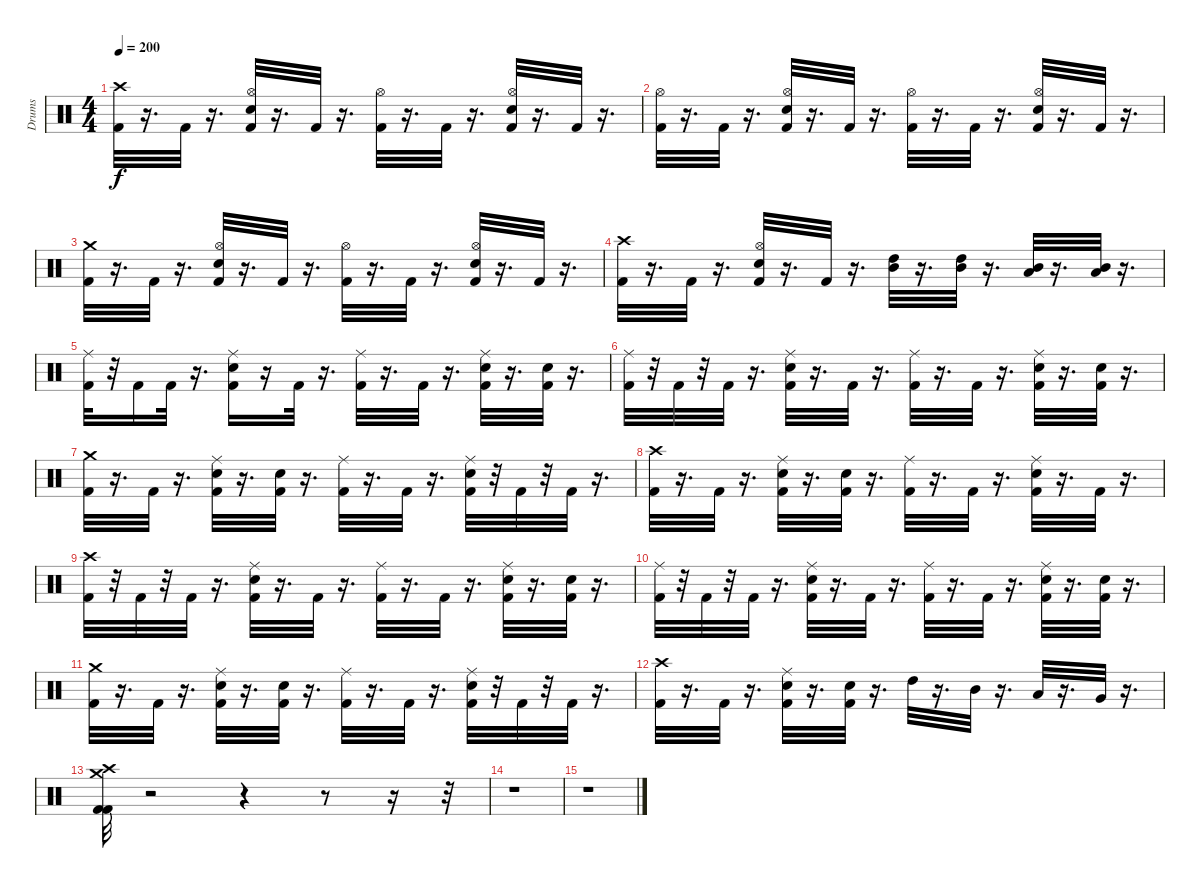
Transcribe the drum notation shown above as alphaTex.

\track ("Drums" "Drums") {instrument percussion}
\staff {score}
\articulation defaults
\ts (4 4)
\tempo 200
\clef neutral
\ks c
("Crash high (hit)" "Kick (hit) 2").32{dy f} r.16{d} "Kick (hit) 2".32 r.16{d} ("Hi-Hat (open)" "Electric Snare (hit)" "Kick (hit) 2").32 r.16{d} "Kick (hit) 2".32 r.16{d} ("Hi-Hat (open)" "Kick (hit) 2").32 r.16{d} "Kick (hit) 2".32 r.16{d} ("Hi-Hat (open)" "Electric Snare (hit)" "Kick (hit) 2").32 r.16{d} "Kick (hit) 2".32 r.16{d} |
("Hi-Hat (open)" "Kick (hit) 2").32 r.16{d} "Kick (hit) 2".32 r.16{d} ("Hi-Hat (open)" "Electric Snare (hit)" "Kick (hit) 2").32 r.16{d} "Kick (hit) 2".32 r.16{d} ("Hi-Hat (open)" "Kick (hit) 2").32 r.16{d} "Kick (hit) 2".32 r.16{d} ("Hi-Hat (open)" "Electric Snare (hit)" "Kick (hit) 2").32 r.16{d} "Kick (hit) 2".32 r.16{d} |
("Kick (hit) 2" "Crash medium (hit)").32 r.16{d} "Kick (hit) 2".32 r.16{d} ("Kick (hit) 2" "Electric Snare (hit)" "Hi-Hat (open)").32 r.16{d} "Kick (hit) 2".32 r.16{d} ("Kick (hit) 2" "Hi-Hat (open)").32 r.16{d} "Kick (hit) 2".32 r.16{d} ("Kick (hit) 2" "Hi-Hat (open)" "Electric Snare (hit)").32 r.16{d} "Kick (hit) 2".32 r.16{d} |
("Kick (hit) 2" "Crash high (hit)").32 r.16{d} "Kick (hit) 2".32 r.16{d} ("Kick (hit) 2" "Electric Snare (hit)" "Hi-Hat (open)").32 r.16{d} "Kick (hit) 2".32 r.16{d} ("Mid Tom (hit)" "High Tom (hit)").32 r.16{d} ("Mid Tom (hit)" "High Tom (hit)").32 r.16{d} ("Low Tom (hit)" "Mid Tom (hit)").32 r.16{d} ("Low Tom (hit)" "Mid Tom (hit)").32 r.16{d} |
("Ride (middle)" "Kick (hit) 2").32 r.32 "Kick (hit) 2".16 "Kick (hit) 2".32 r.16{d} ("Ride (middle)" "Electric Snare (hit)" "Kick (hit) 2").16 r.16 "Kick (hit) 2".32 r.16{d} ("Ride (middle)" "Kick (hit) 2").32 r.16{d} "Kick (hit) 2".32 r.16{d} ("Kick (hit) 2" "Ride (middle)" "Electric Snare (hit)").32 r.16{d} ("Kick (hit) 2" "Electric Snare (hit)").32 r.16{d} |
("Ride (middle)" "Kick (hit) 2").32 r.32 "Kick (hit) 2".32 r.32 "Kick (hit) 2".32 r.16{d} ("Ride (middle)" "Electric Snare (hit)" "Kick (hit) 2").32 r.16{d} "Kick (hit) 2".32 r.16{d} ("Ride (middle)" "Kick (hit) 2").32 r.16{d} "Kick (hit) 2".32 r.16{d} ("Ride (middle)" "Electric Snare (hit)" "Kick (hit) 2").32 r.16{d} ("Electric Snare (hit)" "Kick (hit) 2").32 r.16{d} |
("Kick (hit) 2" "Crash medium (hit)").32 r.16{d} "Kick (hit) 2".32 r.16{d} ("Kick (hit) 2" "Electric Snare (hit)" "Ride (middle)").32 r.16{d} ("Electric Snare (hit)" "Kick (hit) 2").32 r.16{d} ("Kick (hit) 2" "Ride (middle)").32 r.16{d} "Kick (hit) 2".32 r.16{d} ("Kick (hit) 2" "Ride (middle)" "Electric Snare (hit)").32 r.32 "Kick (hit) 2".32 r.32 "Kick (hit) 2".32 r.16{d} |
("Kick (hit) 2" "Crash high (hit)").32 r.16{d} "Kick (hit) 2".32 r.16{d} ("Kick (hit) 2" "Electric Snare (hit)" "Ride (middle)").32 r.16{d} ("Electric Snare (hit)" "Kick (hit) 2").32 r.16{d} ("Ride (middle)" "Kick (hit) 2").32 r.16{d} "Kick (hit) 2".32 r.16{d} ("Kick (hit) 2" "Electric Snare (hit)" "Ride (middle)").32 r.16{d} "Kick (hit) 2".32 r.16{d} |
("Crash high (hit)" "Kick (hit) 2").32 r.32 "Kick (hit) 2".32 r.32 "Kick (hit) 2".32 r.16{d} ("Ride (middle)" "Electric Snare (hit)" "Kick (hit) 2").32 r.16{d} "Kick (hit) 2".32 r.16{d} ("Ride (middle)" "Kick (hit) 2").32 r.16{d} "Kick (hit) 2".32 r.16{d} ("Ride (middle)" "Electric Snare (hit)" "Kick (hit) 2").32 r.16{d} ("Electric Snare (hit)" "Kick (hit) 2").32 r.16{d} |
("Ride (middle)" "Kick (hit) 2").32 r.32 "Kick (hit) 2".32 r.32 "Kick (hit) 2".32 r.16{d} ("Ride (middle)" "Electric Snare (hit)" "Kick (hit) 2").32 r.16{d} "Kick (hit) 2".32 r.16{d} ("Ride (middle)" "Kick (hit) 2").32 r.16{d} "Kick (hit) 2".32 r.16{d} ("Ride (middle)" "Electric Snare (hit)" "Kick (hit) 2").32 r.16{d} ("Electric Snare (hit)" "Kick (hit) 2").32 r.16{d} |
("Kick (hit) 2" "Crash medium (hit)").32 r.16{d} "Kick (hit) 2".32 r.16{d} ("Kick (hit) 2" "Electric Snare (hit)" "Ride (middle)").32 r.16{d} ("Electric Snare (hit)" "Kick (hit) 2").32 r.16{d} ("Kick (hit) 2" "Ride (middle)").32 r.16{d} "Kick (hit) 2".32 r.16{d} ("Kick (hit) 2" "Ride (middle)" "Electric Snare (hit)").32 r.32 "Kick (hit) 2".32 r.32 "Kick (hit) 2".32 r.16{d} |
("Kick (hit) 2" "Crash high (hit)").32 r.16{d} "Kick (hit) 2".32 r.16{d} ("Kick (hit) 2" "Electric Snare (hit)" "Ride (middle)").32 r.16{d} ("Electric Snare (hit)" "Kick (hit) 2").32 r.16{d} "High Tom (hit)".32 r.16{d} "Mid Tom (hit)".32 r.16{d} "Low Tom (hit)".32 r.16{d} "Very Low Tom (hit)".32 r.16{d} |
("Crash high (hit)" "Kick (hit) 2" "Crash medium (hit)" "Kick (hit) 2").32 r.2 r.4 r.8 r.16 r.32 |
r.1 |
r.1
